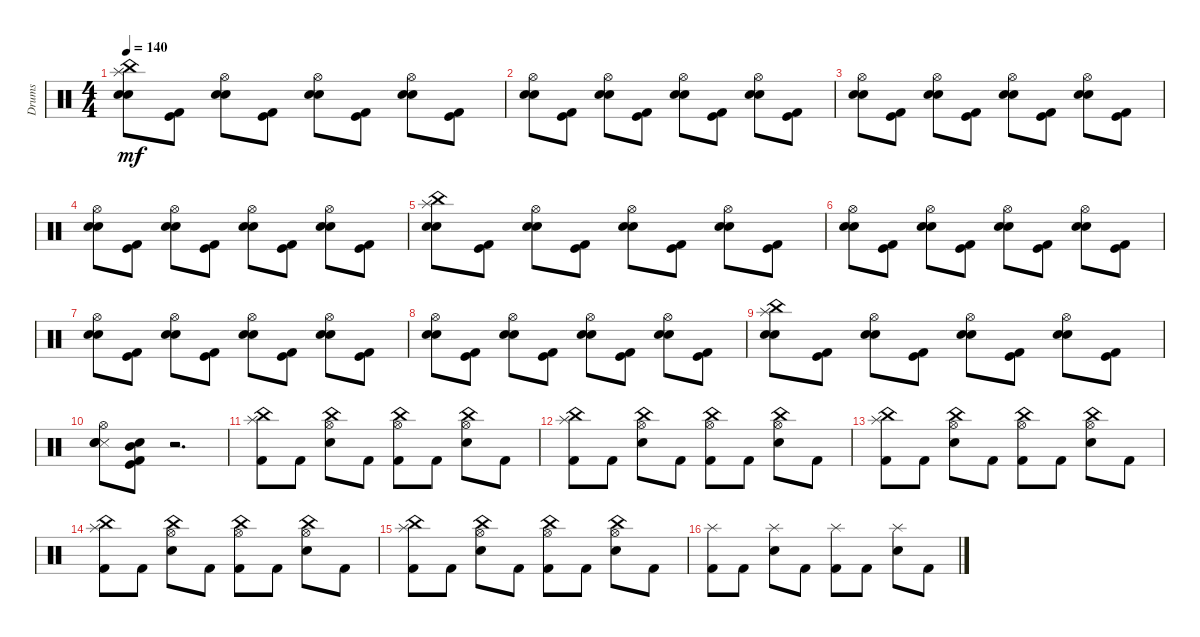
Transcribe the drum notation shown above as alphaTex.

\track ("Drums" "Drums") {instrument percussion}
\staff {score}
\articulation defaults
\ts (4 4)
\tempo 140
\clef neutral
\ks c
("Snare (hit) 2" "Electric Snare (hit)" "Splash (hit)" "China (hit)").8{dy mf} ("Kick (hit) 2" "Kick (hit)").8 ("Hi-Hat (open)" "Snare (hit) 2" "Electric Snare (hit)").8 ("Kick (hit)" "Kick (hit) 2").8 ("Electric Snare (hit)" "Snare (hit) 2" "Hi-Hat (open)").8 ("Kick (hit)" "Kick (hit) 2").8 ("Electric Snare (hit)" "Snare (hit) 2" "Hi-Hat (open)").8 ("Kick (hit)" "Kick (hit) 2").8 |
("Hi-Hat (open)" "Snare (hit) 2" "Electric Snare (hit)").8 ("Kick (hit)" "Kick (hit) 2").8 ("Electric Snare (hit)" "Hi-Hat (open)" "Snare (hit) 2").8 ("Kick (hit)" "Kick (hit) 2").8 ("Electric Snare (hit)" "Snare (hit) 2" "Hi-Hat (open)").8 ("Kick (hit)" "Kick (hit) 2").8 ("Electric Snare (hit)" "Snare (hit) 2" "Hi-Hat (open)").8 ("Kick (hit)" "Kick (hit) 2").8 |
("Hi-Hat (open)" "Snare (hit) 2" "Electric Snare (hit)").8 ("Kick (hit) 2" "Kick (hit)").8 ("Electric Snare (hit)" "Hi-Hat (open)" "Snare (hit) 2").8 ("Kick (hit)" "Kick (hit) 2").8 ("Snare (hit) 2" "Electric Snare (hit)" "Hi-Hat (open)").8 ("Kick (hit) 2" "Kick (hit)").8 ("Electric Snare (hit)" "Snare (hit) 2" "Hi-Hat (open)").8 ("Kick (hit)" "Kick (hit) 2").8 |
("Hi-Hat (open)" "Snare (hit) 2" "Electric Snare (hit)").8 ("Kick (hit) 2" "Kick (hit)").8 ("Snare (hit) 2" "Hi-Hat (open)" "Electric Snare (hit)").8 ("Kick (hit) 2" "Kick (hit)").8 ("Electric Snare (hit)" "Hi-Hat (open)" "Snare (hit) 2").8 ("Kick (hit)" "Kick (hit) 2").8 ("Electric Snare (hit)" "Snare (hit) 2" "Hi-Hat (open)").8 ("Kick (hit)" "Kick (hit) 2").8 |
("Snare (hit) 2" "Electric Snare (hit)" "Splash (hit)" "China (hit)").8 ("Kick (hit) 2" "Kick (hit)").8 ("Hi-Hat (open)" "Snare (hit) 2" "Electric Snare (hit)").8 ("Kick (hit)" "Kick (hit) 2").8 ("Electric Snare (hit)" "Snare (hit) 2" "Hi-Hat (open)").8 ("Kick (hit) 2" "Kick (hit)").8 ("Electric Snare (hit)" "Snare (hit) 2" "Hi-Hat (open)").8 ("Kick (hit)" "Kick (hit) 2").8 |
("Hi-Hat (open)" "Snare (hit) 2" "Electric Snare (hit)").8 ("Kick (hit)" "Kick (hit) 2").8 ("Electric Snare (hit)" "Hi-Hat (open)" "Snare (hit) 2").8 ("Kick (hit)" "Kick (hit) 2").8 ("Electric Snare (hit)" "Snare (hit) 2" "Hi-Hat (open)").8 ("Kick (hit)" "Kick (hit) 2").8 ("Electric Snare (hit)" "Snare (hit) 2" "Hi-Hat (open)").8 ("Kick (hit)" "Kick (hit) 2").8 |
("Hi-Hat (open)" "Snare (hit) 2" "Electric Snare (hit)").8 ("Kick (hit) 2" "Kick (hit)").8 ("Electric Snare (hit)" "Hi-Hat (open)" "Snare (hit) 2").8 ("Kick (hit)" "Kick (hit) 2").8 ("Snare (hit) 2" "Electric Snare (hit)" "Hi-Hat (open)").8 ("Kick (hit)" "Kick (hit) 2").8 ("Electric Snare (hit)" "Snare (hit) 2" "Hi-Hat (open)").8 ("Kick (hit)" "Kick (hit) 2").8 |
("Hi-Hat (open)" "Snare (hit) 2" "Electric Snare (hit)").8 ("Kick (hit) 2" "Kick (hit)").8 ("Snare (hit) 2" "Hi-Hat (open)" "Electric Snare (hit)").8 ("Kick (hit)" "Kick (hit) 2").8 ("Electric Snare (hit)" "Snare (hit) 2" "Hi-Hat (open)").8 ("Kick (hit) 2" "Kick (hit)").8 ("Electric Snare (hit)" "Snare (hit) 2" "Hi-Hat (open)").8 ("Kick (hit)" "Kick (hit) 2").8 |
("Snare (hit) 2" "Electric Snare (hit)" "Splash (hit)" "China (hit)").8 ("Kick (hit) 2" "Kick (hit)").8 ("Hi-Hat (open)" "Snare (hit) 2" "Electric Snare (hit)").8 ("Kick (hit) 2" "Kick (hit)").8 ("Hi-Hat (open)" "Snare (hit) 2" "Electric Snare (hit)").8 ("Kick (hit)" "Kick (hit) 2").8 ("Electric Snare (hit)" "Snare (hit) 2" "Hi-Hat (open)").8 ("Kick (hit)" "Kick (hit) 2").8 |
("Metronome (hit)" "Hi-Hat (open)" "Snare (hit) 2" "Electric Snare (hit)").8 ("Mid Tom (hit)" "Kick (hit)" "Kick (hit) 2" "Electric Snare (hit)").8 r.2{d} |
("Splash (hit)" "China (hit)" "Kick (hit) 2").8 "Kick (hit) 2".8 ("China (hit)" "Electric Snare (hit)" "Hi-Hat (open)").8 "Kick (hit) 2".8 ("China (hit)" "Kick (hit) 2" "Hi-Hat (open)").8 "Kick (hit) 2".8 ("Hi-Hat (open)" "Electric Snare (hit)" "China (hit)").8 "Kick (hit) 2".8 |
("Splash (hit)" "China (hit)" "Kick (hit) 2").8 "Kick (hit) 2".8 ("Electric Snare (hit)" "China (hit)" "Hi-Hat (open)").8 "Kick (hit) 2".8 ("Hi-Hat (open)" "Kick (hit) 2" "China (hit)").8 "Kick (hit) 2".8 ("Hi-Hat (open)" "Electric Snare (hit)" "China (hit)").8 "Kick (hit) 2".8 |
("Splash (hit)" "China (hit)" "Kick (hit) 2").8 "Kick (hit) 2".8 ("China (hit)" "Electric Snare (hit)" "Hi-Hat (open)").8 "Kick (hit) 2".8 ("Hi-Hat (open)" "Kick (hit) 2" "China (hit)").8 "Kick (hit) 2".8 ("Hi-Hat (open)" "Electric Snare (hit)" "China (hit)").8 "Kick (hit) 2".8 |
("Splash (hit)" "China (hit)" "Kick (hit) 2").8 "Kick (hit) 2".8 ("Electric Snare (hit)" "China (hit)" "Hi-Hat (open)").8 "Kick (hit) 2".8 ("Hi-Hat (open)" "Kick (hit) 2" "China (hit)").8 "Kick (hit) 2".8 ("Hi-Hat (open)" "Electric Snare (hit)" "China (hit)").8 "Kick (hit) 2".8 |
("Splash (hit)" "China (hit)" "Kick (hit) 2").8 "Kick (hit) 2".8 ("China (hit)" "Electric Snare (hit)" "Hi-Hat (open)").8 "Kick (hit) 2".8 ("Hi-Hat (open)" "China (hit)" "Kick (hit) 2").8 "Kick (hit) 2".8 ("Hi-Hat (open)" "Electric Snare (hit)" "China (hit)").8 "Kick (hit) 2".8 |
("Splash (hit)" "Kick (hit) 2").8 "Kick (hit) 2".8 ("Electric Snare (hit)" "Splash (hit)").8 "Kick (hit) 2".8 ("Kick (hit) 2" "Splash (hit)").8 "Kick (hit) 2".8 ("Electric Snare (hit)" "Splash (hit)").8 "Kick (hit) 2".8
